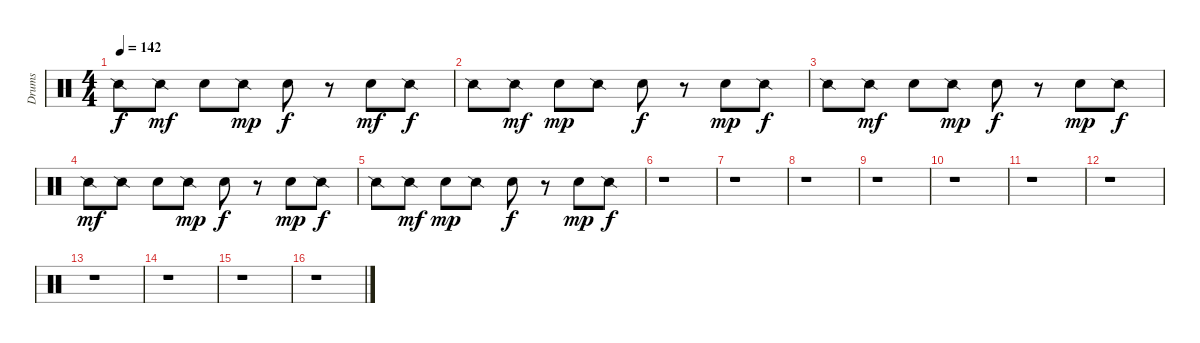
\track ("Drums" "Drums") {instrument percussion}
\staff {score}
\articulation defaults
\ts (4 4)
\tempo 142
\clef neutral
\ks c "Snare (side stick) 2".8{dy f} "Snare (side stick) 2".8{dy mf} "Electric Snare (hit)".8 "Snare (side stick) 2".8{dy mp} "Electric Snare (hit)".8{dy f}
r.8 "Electric Snare (hit)".8{dy mf} "Snare (side stick) 2".8{dy f} |
"Snare (side stick) 2".8 "Snare (side stick) 2".8{dy mf} "Electric Snare (hit)".8{dy mp} "Snare (side stick) 2".8 "Electric Snare (hit)".8{dy f} r.8 "Electric Snare (hit)".8{dy mp} "Snare (side stick) 2".8{dy f} |
"Snare (side stick) 2".8 "Snare (side stick) 2".8{dy mf} "Electric Snare (hit)".8 "Snare (side stick) 2".8{dy mp} "Electric Snare (hit)".8{dy f} r.8 "Electric Snare (hit)".8{dy mp} "Snare (side stick) 2".8{dy f} |
"Snare (side stick) 2".8{dy mf} "Snare (side stick) 2".8 "Electric Snare (hit)".8 "Snare (side stick) 2".8{dy mp} "Electric Snare (hit)".8{dy f} r.8 "Electric Snare (hit)".8{dy mp} "Snare (side stick) 2".8{dy f} |
"Snare (side stick) 2".8 "Snare (side stick) 2".8{dy mf} "Electric Snare (hit)".8{dy mp} "Snare (side stick) 2".8 "Electric Snare (hit)".8{dy f} r.8 "Electric Snare (hit)".8{dy mp} "Snare (side stick) 2".8{dy f} |
r.1 |
r.1 |
r.1 |
r.1 |
r.1 |
r.1 |
r.1 |
r.1 |
r.1 |
r.1 |
r.1
